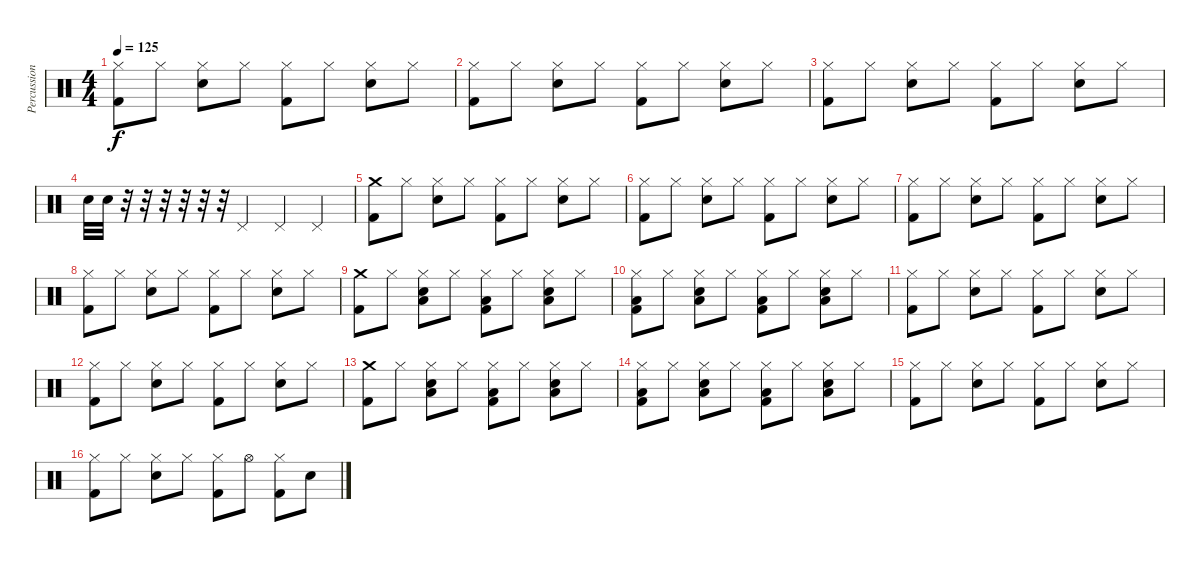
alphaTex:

\track ("Percussions" "Percussion") {instrument percussion}
\staff {score}
\articulation defaults
\ts (4 4)
\tempo 125
\clef neutral
\ks c
("Hi-Hat (closed)" "Kick (hit) 2").8{dy f} "Hi-Hat (closed)".8 ("Hi-Hat (closed)" "Snare (hit) 2").8 "Hi-Hat (closed)".8 ("Hi-Hat (closed)" "Kick (hit) 2").8 "Hi-Hat (closed)".8 ("Hi-Hat (closed)" "Snare (hit) 2").8 "Hi-Hat (closed)".8 |
("Hi-Hat (closed)" "Kick (hit) 2").8 "Hi-Hat (closed)".8 ("Hi-Hat (closed)" "Snare (hit) 2").8 "Hi-Hat (closed)".8 ("Hi-Hat (closed)" "Kick (hit) 2").8 "Hi-Hat (closed)".8 ("Hi-Hat (closed)" "Snare (hit) 2").8 "Hi-Hat (closed)".8 |
("Hi-Hat (closed)" "Kick (hit) 2").8 "Hi-Hat (closed)".8 ("Hi-Hat (closed)" "Snare (hit) 2").8 "Hi-Hat (closed)".8 ("Hi-Hat (closed)" "Kick (hit) 2").8 "Hi-Hat (closed)".8 ("Hi-Hat (closed)" "Snare (hit) 2").8 "Hi-Hat (closed)".8 |
"Snare (hit) 2".32 "Snare (hit) 2".32 r.32 r.32 r.32 r.32 r.32 r.32 "Pedal Hi-Hat (hit)".4 "Pedal Hi-Hat (hit)".4 "Pedal Hi-Hat (hit)".4 |
("Crash medium (hit)" "Kick (hit) 2").8 "Hi-Hat (closed)".8 ("Hi-Hat (closed)" "Snare (hit) 2").8 "Hi-Hat (closed)".8 ("Hi-Hat (closed)" "Kick (hit) 2").8 "Hi-Hat (closed)".8 ("Hi-Hat (closed)" "Snare (hit) 2").8 "Hi-Hat (closed)".8 |
("Hi-Hat (closed)" "Kick (hit) 2").8 "Hi-Hat (closed)".8 ("Hi-Hat (closed)" "Snare (hit) 2").8 "Hi-Hat (closed)".8 ("Hi-Hat (closed)" "Kick (hit) 2").8 "Hi-Hat (closed)".8 ("Hi-Hat (closed)" "Snare (hit) 2").8 "Hi-Hat (closed)".8 |
("Hi-Hat (closed)" "Kick (hit) 2").8 "Hi-Hat (closed)".8 ("Hi-Hat (closed)" "Snare (hit) 2").8 "Hi-Hat (closed)".8 ("Hi-Hat (closed)" "Kick (hit) 2").8 "Hi-Hat (closed)".8 ("Hi-Hat (closed)" "Snare (hit) 2").8 "Hi-Hat (closed)".8 |
("Hi-Hat (closed)" "Kick (hit) 2").8 "Hi-Hat (closed)".8 ("Hi-Hat (closed)" "Snare (hit) 2").8 "Hi-Hat (closed)".8 ("Hi-Hat (closed)" "Kick (hit) 2").8 "Hi-Hat (closed)".8 ("Hi-Hat (closed)" "Snare (hit) 2").8 "Hi-Hat (closed)".8 |
("Crash medium (hit)" "Kick (hit) 2").8 "Hi-Hat (closed)".8 ("Hi-Hat (closed)" "Low Tom (hit)" "Snare (hit) 2").8 "Hi-Hat (closed)".8 ("Hi-Hat (closed)" "Low Tom (hit)" "Kick (hit) 2").8 "Hi-Hat (closed)".8 ("Hi-Hat (closed)" "Low Tom (hit)" "Snare (hit) 2").8 "Hi-Hat (closed)".8 |
("Hi-Hat (closed)" "Low Tom (hit)" "Kick (hit) 2").8 "Hi-Hat (closed)".8 ("Hi-Hat (closed)" "Low Tom (hit)" "Snare (hit) 2").8 "Hi-Hat (closed)".8 ("Hi-Hat (closed)" "Low Tom (hit)" "Kick (hit) 2").8 "Hi-Hat (closed)".8 ("Hi-Hat (closed)" "Low Tom (hit)" "Snare (hit) 2").8 "Hi-Hat (closed)".8 |
("Hi-Hat (closed)" "Kick (hit) 2").8 "Hi-Hat (closed)".8 ("Hi-Hat (closed)" "Snare (hit) 2").8 "Hi-Hat (closed)".8 ("Hi-Hat (closed)" "Kick (hit) 2").8 "Hi-Hat (closed)".8 ("Hi-Hat (closed)" "Snare (hit) 2").8 "Hi-Hat (closed)".8 |
("Hi-Hat (closed)" "Kick (hit) 2").8 "Hi-Hat (closed)".8 ("Hi-Hat (closed)" "Snare (hit) 2").8 "Hi-Hat (closed)".8 ("Hi-Hat (closed)" "Kick (hit) 2").8 "Hi-Hat (closed)".8 ("Hi-Hat (closed)" "Snare (hit) 2").8 "Hi-Hat (closed)".8 |
("Crash medium (hit)" "Kick (hit) 2").8 "Hi-Hat (closed)".8 ("Hi-Hat (closed)" "Low Tom (hit)" "Snare (hit) 2").8 "Hi-Hat (closed)".8 ("Hi-Hat (closed)" "Low Tom (hit)" "Kick (hit) 2").8 "Hi-Hat (closed)".8 ("Hi-Hat (closed)" "Low Tom (hit)" "Snare (hit) 2").8 "Hi-Hat (closed)".8 |
("Hi-Hat (closed)" "Low Tom (hit)" "Kick (hit) 2").8 "Hi-Hat (closed)".8 ("Hi-Hat (closed)" "Low Tom (hit)" "Snare (hit) 2").8 "Hi-Hat (closed)".8 ("Hi-Hat (closed)" "Low Tom (hit)" "Kick (hit) 2").8 "Hi-Hat (closed)".8 ("Hi-Hat (closed)" "Low Tom (hit)" "Snare (hit) 2").8 "Hi-Hat (closed)".8 |
("Hi-Hat (closed)" "Kick (hit) 2").8 "Hi-Hat (closed)".8 ("Hi-Hat (closed)" "Snare (hit) 2").8 "Hi-Hat (closed)".8 ("Hi-Hat (closed)" "Kick (hit) 2").8 "Hi-Hat (closed)".8 ("Hi-Hat (closed)" "Snare (hit) 2").8 "Hi-Hat (closed)".8 |
("Hi-Hat (closed)" "Kick (hit) 2").8 "Hi-Hat (closed)".8 ("Hi-Hat (closed)" "Snare (hit) 2").8 "Hi-Hat (closed)".8 ("Hi-Hat (closed)" "Kick (hit) 2").8 "Hi-Hat (open)".8 ("Hi-Hat (closed)" "Kick (hit) 2").8 "Snare (hit) 2".8
